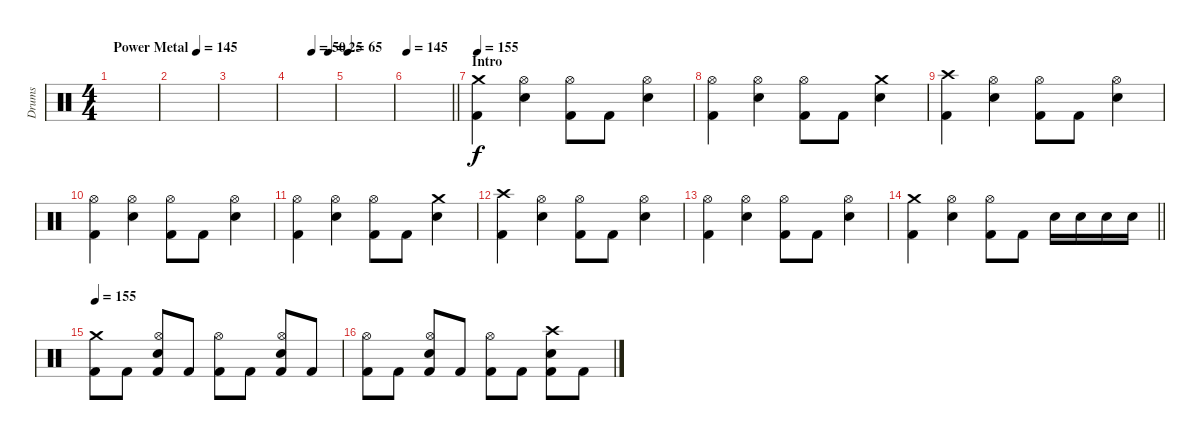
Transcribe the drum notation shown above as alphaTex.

\track ("Drums" "Drums") {solo instrument percussion}
\staff {score}
\articulation defaults
\ts (4 4)
\tempo (145 "Power Metal")
\tempo 65
\tempo (145 "Power Metal")
\clef neutral
\ks c
|
|
|
\tempo (50 0.5)
\tempo (25 0.875)
|
\tempo 65
|
\tempo 145
\barLineRight lightlight
|
\section ("" "Intro")
\tempo 155
("Crash medium (hit)" "Kick (hit) 2").4 ("Hi-Hat (open)" "Electric Snare (hit)").4 ("Hi-Hat (open)" "Kick (hit) 2").8 "Kick (hit) 2".8 ("Hi-Hat (open)" "Electric Snare (hit)").4 |
("Hi-Hat (open)" "Kick (hit) 2").4 ("Hi-Hat (open)" "Electric Snare (hit)").4 ("Hi-Hat (open)" "Kick (hit) 2").8 "Kick (hit) 2".8 ("Crash medium (hit)" "Electric Snare (hit)").4 |
("Crash high (hit)" "Kick (hit) 2").4 ("Hi-Hat (open)" "Electric Snare (hit)").4 ("Hi-Hat (open)" "Kick (hit) 2").8 "Kick (hit) 2".8 ("Hi-Hat (open)" "Electric Snare (hit)").4 |
("Hi-Hat (open)" "Kick (hit) 2").4 ("Hi-Hat (open)" "Electric Snare (hit)").4 ("Hi-Hat (open)" "Kick (hit) 2").8 "Kick (hit) 2".8 ("Hi-Hat (open)" "Electric Snare (hit)").4 |
("Hi-Hat (open)" "Kick (hit) 2").4 ("Hi-Hat (open)" "Electric Snare (hit)").4 ("Hi-Hat (open)" "Kick (hit) 2").8 "Kick (hit) 2".8 ("Crash medium (hit)" "Electric Snare (hit)").4 |
("Crash high (hit)" "Kick (hit) 2").4 ("Hi-Hat (open)" "Electric Snare (hit)").4 ("Hi-Hat (open)" "Kick (hit) 2").8 "Kick (hit) 2".8 ("Hi-Hat (open)" "Electric Snare (hit)").4 |
("Hi-Hat (open)" "Kick (hit) 2").4 ("Hi-Hat (open)" "Electric Snare (hit)").4 ("Hi-Hat (open)" "Kick (hit) 2").8 "Kick (hit) 2".8 ("Hi-Hat (open)" "Electric Snare (hit)").4 |
\barLineRight lightlight
("Crash medium (hit)" "Kick (hit) 2").4 ("Hi-Hat (open)" "Electric Snare (hit)").4 ("Hi-Hat (open)" "Kick (hit) 2").8 "Kick (hit) 2".8 "Electric Snare (hit)".16 "Electric Snare (hit)".16 "Electric Snare (hit)".16 "Electric Snare (hit)".16 |
\section ("" "")
\tempo 155
("Crash medium (hit)" "Kick (hit) 2").8 "Kick (hit) 2".8 ("Hi-Hat (open)" "Electric Snare (hit)" "Kick (hit) 2").8 "Kick (hit) 2".8 ("Hi-Hat (open)" "Kick (hit) 2").8 "Kick (hit) 2".8 ("Electric Snare (hit)" "Hi-Hat (open)" "Kick (hit) 2").8 "Kick (hit) 2".8 |
("Hi-Hat (open)" "Kick (hit) 2").8 "Kick (hit) 2".8 ("Hi-Hat (open)" "Electric Snare (hit)" "Kick (hit) 2").8 "Kick (hit) 2".8 ("Hi-Hat (open)" "Kick (hit) 2").8 "Kick (hit) 2".8 ("Electric Snare (hit)" "Crash high (hit)" "Kick (hit) 2").8 "Kick (hit) 2".8
